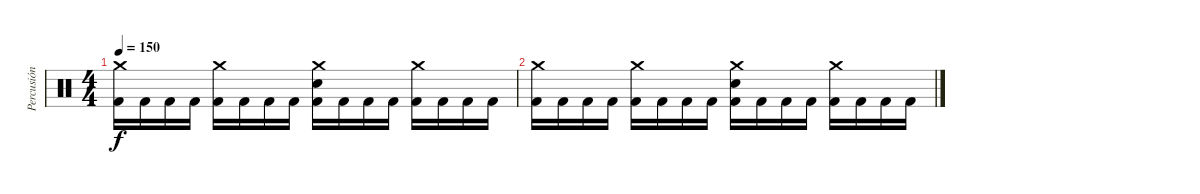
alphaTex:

\track ("Percusión" "Percusión") {instrument percussion}
\staff {score}
\articulation defaults
\ts (4 4)
\tempo 150
\clef neutral
\ks c
("Crash medium (hit)" "Kick (hit) 2").16{dy f} "Kick (hit) 2".16 "Kick (hit) 2".16 "Kick (hit) 2".16 ("Crash medium (hit)" "Kick (hit) 2").16 "Kick (hit) 2".16 "Kick (hit) 2".16 "Kick (hit) 2".16 ("Snare (hit) 2" "Crash medium (hit)" "Kick (hit) 2").16 "Kick (hit) 2".16 "Kick (hit) 2".16 "Kick (hit) 2".16 ("Crash medium (hit)" "Kick (hit) 2").16 "Kick (hit) 2".16 "Kick (hit) 2".16 "Kick (hit) 2".16 |
("Crash medium (hit)" "Kick (hit) 2").16 "Kick (hit) 2".16 "Kick (hit) 2".16 "Kick (hit) 2".16 ("Crash medium (hit)" "Kick (hit) 2").16 "Kick (hit) 2".16 "Kick (hit) 2".16 "Kick (hit) 2".16 ("Snare (hit) 2" "Crash medium (hit)" "Kick (hit) 2").16 "Kick (hit) 2".16 "Kick (hit) 2".16 "Kick (hit) 2".16 ("Crash medium (hit)" "Kick (hit) 2").16 "Kick (hit) 2".16 "Kick (hit) 2".16 "Kick (hit) 2".16
